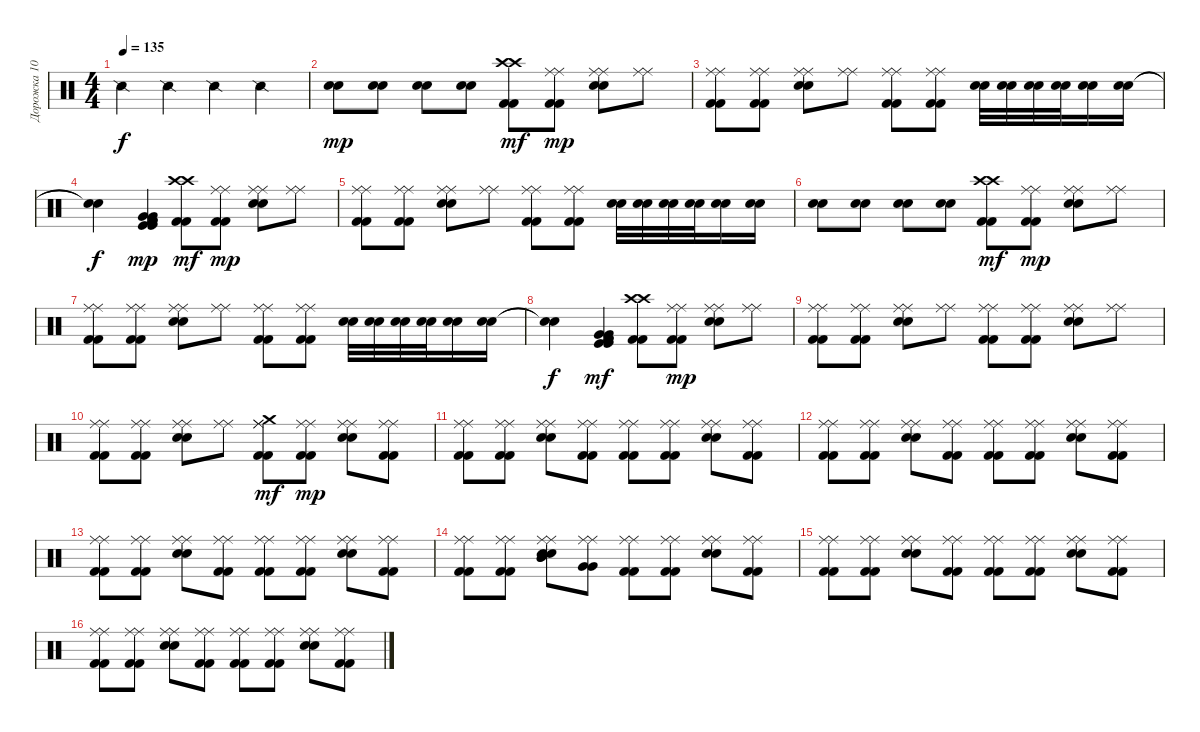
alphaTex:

\track ("Дорожка 10" "Дорожка 10") {instrument percussion}
\staff {score}
\articulation defaults
\ts (4 4)
\tempo 135
\clef neutral
\ks c "Snare (side stick) 2".4{dy f} "Snare (side stick) 2".4 "Snare (side stick) 2".4 "Snare (side stick) 2".4
|
("Snare (hit) 2" "Snare (hit) 2").8{dy mp} ("Snare (hit) 2" "Snare (hit) 2").8 ("Snare (hit) 2" "Snare (hit) 2").8 ("Snare (hit) 2" "Snare (hit) 2").8 ("Kick (hit) 2" "Crash high (hit)" "Kick (hit) 2" "Crash high (hit)").8{dy mf} ("Kick (hit) 2" "Ride (middle)" "Kick (hit) 2" "Ride (middle)").8{dy mp} ("Snare (hit) 2" "Ride (middle)" "Snare (hit) 2" "Ride (middle)").8 ("Ride (middle)" "Ride (middle)").8 |
("Kick (hit) 2" "Ride (middle)" "Kick (hit) 2" "Ride (middle)").8 ("Kick (hit) 2" "Ride (middle)" "Kick (hit) 2" "Ride (middle)").8 ("Snare (hit) 2" "Ride (middle)" "Snare (hit) 2" "Ride (middle)").8 ("Ride (middle)" "Ride (middle)").8 ("Kick (hit) 2" "Ride (middle)" "Kick (hit) 2" "Ride (middle)").8 ("Kick (hit) 2" "Ride (middle)" "Kick (hit) 2" "Ride (middle)").8 ("Snare (hit) 2" "Snare (hit) 2").32 ("Snare (hit) 2" "Snare (hit) 2").32 ("Snare (hit) 2" "Snare (hit) 2").32 ("Snare (hit) 2" "Snare (hit) 2").32 ("Snare (hit) 2" "Snare (hit) 2").16 ("Snare (hit) 2" "Snare (hit) 2").16 |
("Snare (hit)"{t} "Snare (hit)"{t}).4{dy f} ("Kick (hit)" "Kick (hit) 2" "Very Low Tom (hit)" "Kick (hit)" "Kick (hit) 2" "Very Low Tom (hit)").4{dy mp} ("Kick (hit) 2" "Crash high (hit)" "Kick (hit) 2" "Crash high (hit)").8{dy mf} ("Kick (hit) 2" "Ride (middle)" "Kick (hit) 2" "Ride (middle)").8{dy mp} ("Snare (hit) 2" "Ride (middle)" "Snare (hit) 2" "Ride (middle)").8 ("Ride (middle)" "Ride (middle)").8 |
("Kick (hit) 2" "Ride (middle)" "Kick (hit) 2" "Ride (middle)").8 ("Kick (hit) 2" "Ride (middle)" "Kick (hit) 2" "Ride (middle)").8 ("Snare (hit) 2" "Ride (middle)" "Snare (hit) 2" "Ride (middle)").8 ("Ride (middle)" "Ride (middle)").8 ("Kick (hit) 2" "Ride (middle)" "Kick (hit) 2" "Ride (middle)").8 ("Kick (hit) 2" "Ride (middle)" "Kick (hit) 2" "Ride (middle)").8 ("Snare (hit) 2" "Snare (hit) 2").32 ("Snare (hit) 2" "Snare (hit) 2").32 ("Snare (hit) 2" "Snare (hit) 2").32 ("Snare (hit) 2" "Snare (hit) 2").32 ("Snare (hit) 2" "Snare (hit) 2").16 ("Snare (hit) 2" "Snare (hit) 2").16 |
("Snare (hit) 2" "Snare (hit) 2").8 ("Snare (hit) 2" "Snare (hit) 2").8 ("Snare (hit) 2" "Snare (hit) 2").8 ("Snare (hit) 2" "Snare (hit) 2").8 ("Kick (hit) 2" "Crash high (hit)" "Kick (hit) 2" "Crash high (hit)").8{dy mf} ("Kick (hit) 2" "Ride (middle)" "Kick (hit) 2" "Ride (middle)").8{dy mp} ("Snare (hit) 2" "Ride (middle)" "Snare (hit) 2" "Ride (middle)").8 ("Ride (middle)" "Ride (middle)").8 |
("Kick (hit) 2" "Ride (middle)" "Kick (hit) 2" "Ride (middle)").8 ("Kick (hit) 2" "Ride (middle)" "Kick (hit) 2" "Ride (middle)").8 ("Snare (hit) 2" "Ride (middle)" "Snare (hit) 2" "Ride (middle)").8 ("Ride (middle)" "Ride (middle)").8 ("Kick (hit) 2" "Ride (middle)" "Kick (hit) 2" "Ride (middle)").8 ("Kick (hit) 2" "Ride (middle)" "Kick (hit) 2" "Ride (middle)").8 ("Snare (hit) 2" "Snare (hit) 2").32 ("Snare (hit) 2" "Snare (hit) 2").32 ("Snare (hit) 2" "Snare (hit) 2").32 ("Snare (hit) 2" "Snare (hit) 2").32 ("Snare (hit) 2" "Snare (hit) 2").16 ("Snare (hit) 2" "Snare (hit) 2").16 |
("Snare (hit)"{t} "Snare (hit)"{t}).4{dy f} ("Kick (hit)" "Kick (hit) 2" "Very Low Tom (hit)" "Kick (hit)" "Kick (hit) 2" "Very Low Tom (hit)").4{dy mf} ("Kick (hit) 2" "Crash high (hit)" "Kick (hit) 2" "Crash high (hit)").8 ("Kick (hit) 2" "Ride (middle)" "Kick (hit) 2" "Ride (middle)").8{dy mp} ("Snare (hit) 2" "Ride (middle)" "Snare (hit) 2" "Ride (middle)").8 ("Ride (middle)" "Ride (middle)").8 |
("Kick (hit) 2" "Ride (middle)" "Kick (hit) 2" "Ride (middle)").8 ("Kick (hit) 2" "Ride (middle)" "Kick (hit) 2" "Ride (middle)").8 ("Snare (hit) 2" "Ride (middle)" "Snare (hit) 2" "Ride (middle)").8 ("Ride (middle)" "Ride (middle)").8 ("Kick (hit) 2" "Ride (middle)" "Kick (hit) 2" "Ride (middle)").8 ("Kick (hit) 2" "Ride (middle)" "Kick (hit) 2" "Ride (middle)").8 ("Snare (hit) 2" "Ride (middle)" "Snare (hit) 2" "Ride (middle)").8 ("Ride (middle)" "Ride (middle)").8 |
("Kick (hit) 2" "Ride (middle)" "Kick (hit) 2" "Ride (middle)").8 ("Kick (hit) 2" "Ride (middle)" "Kick (hit) 2" "Ride (middle)").8 ("Snare (hit) 2" "Ride (middle)" "Snare (hit) 2" "Ride (middle)").8 ("Ride (middle)" "Ride (middle)").8 ("Kick (hit) 2" "Ride (middle)" "Kick (hit) 2" "Ride (middle)" "Crash medium (hit)").8{dy mf} ("Kick (hit) 2" "Ride (middle)" "Kick (hit) 2" "Ride (middle)").8{dy mp} ("Snare (hit) 2" "Ride (middle)" "Snare (hit) 2" "Ride (middle)").8 ("Kick (hit) 2" "Ride (middle)" "Kick (hit) 2" "Ride (middle)").8 |
("Kick (hit) 2" "Ride (middle)" "Kick (hit) 2" "Ride (middle)").8 ("Kick (hit) 2" "Ride (middle)" "Kick (hit) 2" "Ride (middle)").8 ("Snare (hit) 2" "Ride (middle)" "Snare (hit) 2" "Ride (middle)").8 ("Kick (hit) 2" "Ride (middle)" "Kick (hit) 2" "Ride (middle)").8 ("Kick (hit) 2" "Ride (middle)" "Kick (hit) 2" "Ride (middle)").8 ("Kick (hit) 2" "Ride (middle)" "Kick (hit) 2" "Ride (middle)").8 ("Snare (hit) 2" "Ride (middle)" "Snare (hit) 2" "Ride (middle)").8 ("Kick (hit) 2" "Ride (middle)" "Kick (hit) 2" "Ride (middle)").8 |
("Kick (hit) 2" "Ride (middle)" "Kick (hit) 2" "Ride (middle)").8 ("Kick (hit) 2" "Ride (middle)" "Kick (hit) 2" "Ride (middle)").8 ("Snare (hit) 2" "Ride (middle)" "Snare (hit) 2" "Ride (middle)").8 ("Kick (hit) 2" "Ride (middle)" "Kick (hit) 2" "Ride (middle)").8 ("Kick (hit) 2" "Ride (middle)" "Kick (hit) 2" "Ride (middle)").8 ("Kick (hit) 2" "Ride (middle)" "Kick (hit) 2" "Ride (middle)").8 ("Snare (hit) 2" "Ride (middle)" "Snare (hit) 2" "Ride (middle)").8 ("Kick (hit) 2" "Ride (middle)" "Kick (hit) 2" "Ride (middle)").8 |
("Kick (hit) 2" "Ride (middle)" "Kick (hit) 2" "Ride (middle)").8 ("Kick (hit) 2" "Ride (middle)" "Kick (hit) 2" "Ride (middle)").8 ("Snare (hit) 2" "Ride (middle)" "Snare (hit) 2" "Ride (middle)").8 ("Kick (hit) 2" "Ride (middle)" "Kick (hit) 2" "Ride (middle)").8 ("Kick (hit) 2" "Ride (middle)" "Kick (hit) 2" "Ride (middle)").8 ("Kick (hit) 2" "Ride (middle)" "Kick (hit) 2" "Ride (middle)").8 ("Snare (hit) 2" "Ride (middle)" "Snare (hit) 2" "Ride (middle)").8 ("Kick (hit) 2" "Ride (middle)" "Kick (hit) 2" "Ride (middle)").8 |
("Kick (hit) 2" "Ride (middle)" "Kick (hit) 2" "Ride (middle)").8 ("Kick (hit) 2" "Ride (middle)" "Kick (hit) 2" "Ride (middle)").8 ("Snare (hit) 2" "Mid Tom (hit)" "Ride (middle)" "Snare (hit) 2" "Mid Tom (hit)" "Ride (middle)").8 ("Very Low Tom (hit)" "Ride (middle)" "Very Low Tom (hit)" "Ride (middle)").8 ("Kick (hit) 2" "Ride (middle)" "Kick (hit) 2" "Ride (middle)").8 ("Kick (hit) 2" "Ride (middle)" "Kick (hit) 2" "Ride (middle)").8 ("Snare (hit) 2" "Ride (middle)" "Snare (hit) 2" "Ride (middle)").8 ("Kick (hit) 2" "Ride (middle)" "Kick (hit) 2" "Ride (middle)").8 |
("Kick (hit) 2" "Ride (middle)" "Kick (hit) 2" "Ride (middle)").8 ("Kick (hit) 2" "Ride (middle)" "Kick (hit) 2" "Ride (middle)").8 ("Snare (hit) 2" "Ride (middle)" "Snare (hit) 2" "Ride (middle)").8 ("Kick (hit) 2" "Ride (middle)" "Kick (hit) 2" "Ride (middle)").8 ("Kick (hit) 2" "Ride (middle)" "Kick (hit) 2" "Ride (middle)").8 ("Kick (hit) 2" "Ride (middle)" "Kick (hit) 2" "Ride (middle)").8 ("Snare (hit) 2" "Ride (middle)" "Snare (hit) 2" "Ride (middle)").8 ("Kick (hit) 2" "Ride (middle)" "Kick (hit) 2" "Ride (middle)").8 |
("Kick (hit) 2" "Ride (middle)" "Kick (hit) 2" "Ride (middle)").8 ("Kick (hit) 2" "Ride (middle)" "Kick (hit) 2" "Ride (middle)").8 ("Snare (hit) 2" "Ride (middle)" "Snare (hit) 2" "Ride (middle)").8 ("Kick (hit) 2" "Ride (middle)" "Kick (hit) 2" "Ride (middle)").8 ("Kick (hit) 2" "Ride (middle)" "Kick (hit) 2" "Ride (middle)").8 ("Kick (hit) 2" "Ride (middle)" "Kick (hit) 2" "Ride (middle)").8 ("Snare (hit) 2" "Ride (middle)" "Snare (hit) 2" "Ride (middle)").8 ("Kick (hit) 2" "Ride (middle)" "Kick (hit) 2" "Ride (middle)").8
